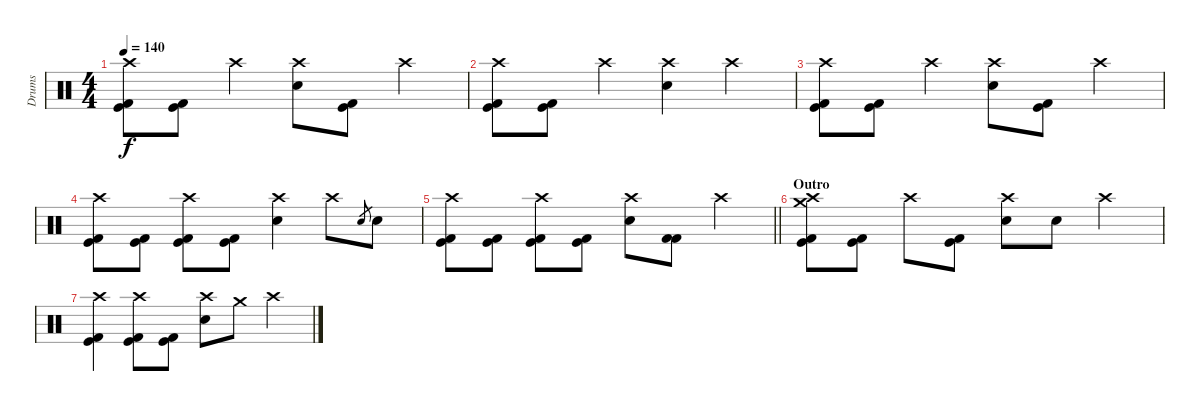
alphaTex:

\track ("Drums" "Drums") {instrument percussion}
\staff {score}
\articulation defaults
\ts (4 4)
\tempo 140
\clef neutral
\ks c
("Kick (hit)" "Kick (hit) 2" "Crash high (hit)").8{dy f} ("Kick (hit) 2" "Kick (hit)").8 "Crash high (hit)".4 ("Snare (hit) 2" "Crash high (hit)").8 ("Kick (hit) 2" "Kick (hit)").8 "Crash high (hit)".4 |
("Kick (hit)" "Kick (hit) 2" "Crash high (hit)").8 ("Kick (hit) 2" "Kick (hit)").8 "Crash high (hit)".4 ("Snare (hit) 2" "Crash high (hit)").4 "Crash high (hit)".4 |
("Kick (hit)" "Kick (hit) 2" "Crash high (hit)").8 ("Kick (hit) 2" "Kick (hit)").8 "Crash high (hit)".4 ("Snare (hit) 2" "Crash high (hit)").8 ("Kick (hit) 2" "Kick (hit)").8 "Crash high (hit)".4 |
("Kick (hit)" "Kick (hit) 2" "Crash high (hit)").8 ("Kick (hit) 2" "Kick (hit)").8 ("Crash high (hit)" "Kick (hit) 2" "Kick (hit)").8 ("Kick (hit) 2" "Kick (hit)").8 ("Snare (hit) 2" "Crash high (hit)").4 "Crash high (hit)".8 "Snare (hit) 2".8{gr} "Snare (hit) 2".8 |
\barLineRight lightlight
("Kick (hit)" "Kick (hit) 2" "Crash high (hit)").8 ("Kick (hit) 2" "Kick (hit)").8 ("Crash high (hit)" "Kick (hit) 2" "Kick (hit)").8 ("Kick (hit)" "Kick (hit) 2").8 ("Snare (hit) 2" "Crash high (hit)").8 ("Kick (hit) 2" "Kick (hit) 2").8 "Crash high (hit)".4 |
\section ("" "Outro")
("Kick (hit)" "Kick (hit) 2" "Crash high (hit)" "Crash medium (hit)").8 ("Kick (hit)" "Kick (hit) 2").8 "Crash high (hit)".8 ("Kick (hit)" "Kick (hit) 2").8 ("Snare (hit) 2" "Crash high (hit)").8 "Snare (hit) 2".8 "Crash high (hit)".4 |
("Kick (hit)" "Kick (hit) 2" "Crash high (hit)").4 ("Crash high (hit)" "Kick (hit) 2" "Kick (hit)").8 ("Kick (hit) 2" "Kick (hit)").8 ("Snare (hit) 2" "Crash high (hit)").8 "Crash medium (hit)".8 "Crash high (hit)".4
